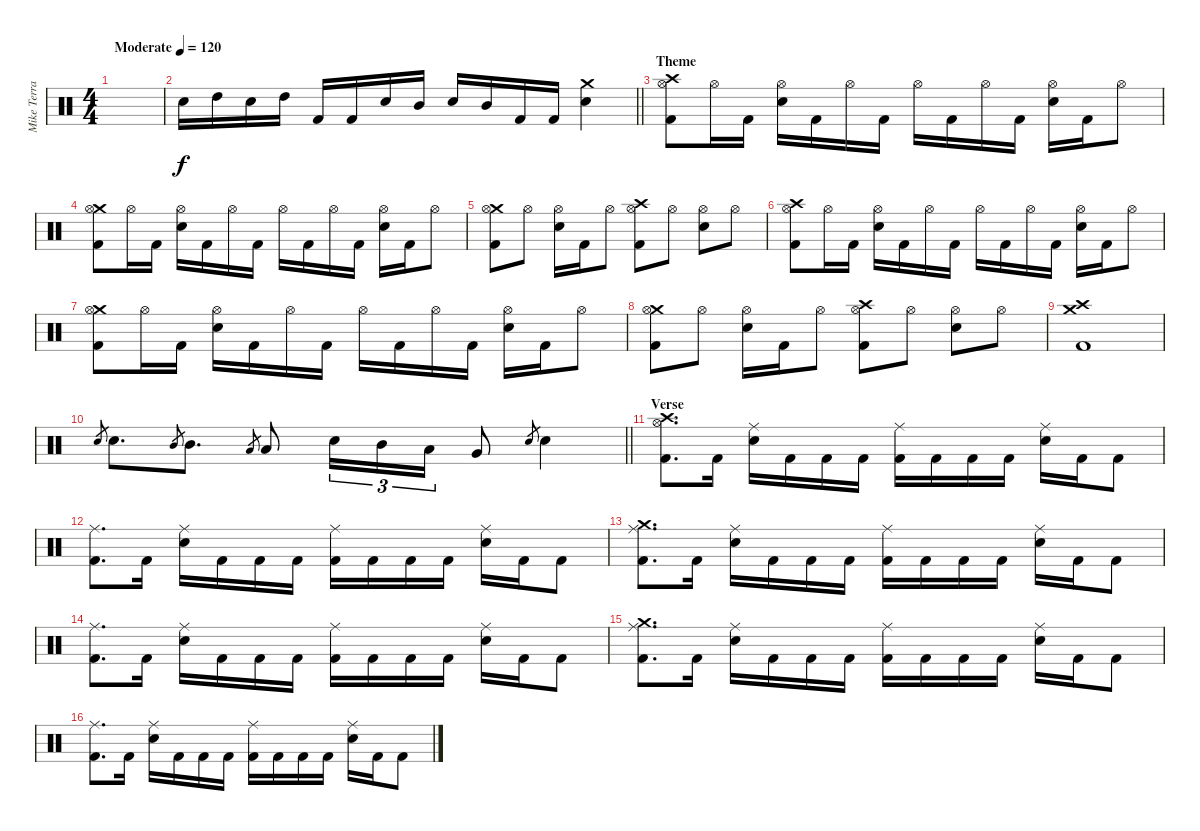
\track ("Mike Terrana" "Mike Terra") {instrument percussion}
\staff {score}
\articulation defaults
\ts (4 4)
\tempo (120 "Moderate")
\clef neutral
\ks c
|
\barLineRight lightlight "Snare (hit) 2".16 "High Tom (hit)".16 "Snare (hit) 2".16 "High Tom (hit)".16 "Kick (hit) 2".16 "Kick (hit) 2".16 "Snare (hit) 2".16 "Mid Tom (hit)".16 "Snare (hit) 2".16 "Mid Tom (hit)".16 "Kick (hit) 2".16 "Kick (hit) 2".16
("Crash medium (hit)" "Snare (hit) 2").4 |
\section ("" "Theme")
("Crash high (hit)" "Hi-Hat (open)" "Kick (hit) 2").8 "Hi-Hat (open)".16 "Kick (hit) 2".16 ("Hi-Hat (open)" "Snare (hit) 2").16 "Kick (hit) 2".16 "Hi-Hat (open)".16 "Kick (hit) 2".16 "Hi-Hat (open)".16 "Kick (hit) 2".16 "Hi-Hat (open)".16 "Kick (hit) 2".16 ("Hi-Hat (open)" "Snare (hit) 2").16 "Kick (hit) 2".16 "Hi-Hat (open)".8 |
("Crash medium (hit)" "Hi-Hat (open)" "Kick (hit) 2").8 "Hi-Hat (open)".16 "Kick (hit) 2".16 ("Hi-Hat (open)" "Snare (hit) 2").16 "Kick (hit) 2".16 "Hi-Hat (open)".16 "Kick (hit) 2".16 "Hi-Hat (open)".16 "Kick (hit) 2".16 "Hi-Hat (open)".16 "Kick (hit) 2".16 ("Hi-Hat (open)" "Snare (hit) 2").16 "Kick (hit) 2".16 "Hi-Hat (open)".8 |
("Crash medium (hit)" "Hi-Hat (open)" "Kick (hit) 2").8 "Hi-Hat (open)".8 ("Hi-Hat (open)" "Snare (hit) 2").16 "Kick (hit) 2".16 "Hi-Hat (open)".8 ("Crash high (hit)" "Hi-Hat (open)" "Kick (hit) 2").8 "Hi-Hat (open)".8 ("Hi-Hat (open)" "Snare (hit) 2").8 "Hi-Hat (open)".8 |
("Crash high (hit)" "Hi-Hat (open)" "Kick (hit) 2").8 "Hi-Hat (open)".16 "Kick (hit) 2".16 ("Hi-Hat (open)" "Snare (hit) 2").16 "Kick (hit) 2".16 "Hi-Hat (open)".16 "Kick (hit) 2".16 "Hi-Hat (open)".16 "Kick (hit) 2".16 "Hi-Hat (open)".16 "Kick (hit) 2".16 ("Hi-Hat (open)" "Snare (hit) 2").16 "Kick (hit) 2".16 "Hi-Hat (open)".8 |
("Crash medium (hit)" "Hi-Hat (open)" "Kick (hit) 2").8 "Hi-Hat (open)".16 "Kick (hit) 2".16 ("Hi-Hat (open)" "Snare (hit) 2").16 "Kick (hit) 2".16 "Hi-Hat (open)".16 "Kick (hit) 2".16 "Hi-Hat (open)".16 "Kick (hit) 2".16 "Hi-Hat (open)".16 "Kick (hit) 2".16 ("Hi-Hat (open)" "Snare (hit) 2").16 "Kick (hit) 2".16 "Hi-Hat (open)".8 |
("Crash medium (hit)" "Hi-Hat (open)" "Kick (hit) 2").8 "Hi-Hat (open)".8 ("Hi-Hat (open)" "Snare (hit) 2").16 "Kick (hit) 2".16 "Hi-Hat (open)".8 ("Crash high (hit)" "Hi-Hat (open)" "Kick (hit) 2").8 "Hi-Hat (open)".8 ("Hi-Hat (open)" "Snare (hit) 2").8 "Hi-Hat (open)".8 |
("Crash high (hit)" "Crash medium (hit)" "Kick (hit) 2").1 |
\barLineRight lightlight "Snare (hit) 2".8{gr} "Snare (hit) 2".8{d} "Mid Tom (hit)".8{gr} "Mid Tom (hit)".8{d} "Low Tom (hit)".8{gr} "Low Tom (hit)".8 "Snare (hit) 2".16{tu (3 2)} "Mid Tom (hit)".16{tu (3 2)} "Low Tom (hit)".16{tu (3 2)} "Very Low Tom (hit)".8 "Snare (hit) 2".8{gr} "Snare (hit) 2".4
|
\section ("" "Verse")
("Crash high (hit)" "Hi-Hat (open)" "Kick (hit) 2").8{d} "Kick (hit) 2".16 ("Ride (middle)" "Snare (hit) 2").16 "Kick (hit) 2".16 "Kick (hit) 2".16 "Kick (hit) 2".16 ("Ride (middle)" "Kick (hit) 2").16 "Kick (hit) 2".16 "Kick (hit) 2".16 "Kick (hit) 2".16 ("Ride (middle)" "Snare (hit) 2").16 "Kick (hit) 2".16 "Kick (hit) 2".8 |
("Ride (middle)" "Kick (hit) 2").8{d} "Kick (hit) 2".16 ("Ride (middle)" "Snare (hit) 2").16 "Kick (hit) 2".16 "Kick (hit) 2".16 "Kick (hit) 2".16 ("Ride (middle)" "Kick (hit) 2").16 "Kick (hit) 2".16 "Kick (hit) 2".16 "Kick (hit) 2".16 ("Ride (middle)" "Snare (hit) 2").16 "Kick (hit) 2".16 "Kick (hit) 2".8 |
("Crash medium (hit)" "Ride (middle)" "Kick (hit) 2").8{d} "Kick (hit) 2".16 ("Ride (middle)" "Snare (hit) 2").16 "Kick (hit) 2".16 "Kick (hit) 2".16 "Kick (hit) 2".16 ("Ride (middle)" "Kick (hit) 2").16 "Kick (hit) 2".16 "Kick (hit) 2".16 "Kick (hit) 2".16 ("Ride (middle)" "Snare (hit) 2").16 "Kick (hit) 2".16 "Kick (hit) 2".8 |
("Ride (middle)" "Kick (hit) 2").8{d} "Kick (hit) 2".16 ("Ride (middle)" "Snare (hit) 2").16 "Kick (hit) 2".16 "Kick (hit) 2".16 "Kick (hit) 2".16 ("Ride (middle)" "Kick (hit) 2").16 "Kick (hit) 2".16 "Kick (hit) 2".16 "Kick (hit) 2".16 ("Ride (middle)" "Snare (hit) 2").16 "Kick (hit) 2".16 "Kick (hit) 2".8 |
("Crash medium (hit)" "Ride (middle)" "Kick (hit) 2").8{d} "Kick (hit) 2".16 ("Ride (middle)" "Snare (hit) 2").16 "Kick (hit) 2".16 "Kick (hit) 2".16 "Kick (hit) 2".16 ("Ride (middle)" "Kick (hit) 2").16 "Kick (hit) 2".16 "Kick (hit) 2".16 "Kick (hit) 2".16 ("Ride (middle)" "Snare (hit) 2").16 "Kick (hit) 2".16 "Kick (hit) 2".8 |
("Ride (middle)" "Kick (hit) 2").8{d} "Kick (hit) 2".16 ("Ride (middle)" "Snare (hit) 2").16 "Kick (hit) 2".16 "Kick (hit) 2".16 "Kick (hit) 2".16 ("Ride (middle)" "Kick (hit) 2").16 "Kick (hit) 2".16 "Kick (hit) 2".16 "Kick (hit) 2".16 ("Ride (middle)" "Snare (hit) 2").16 "Kick (hit) 2".16 "Kick (hit) 2".8
